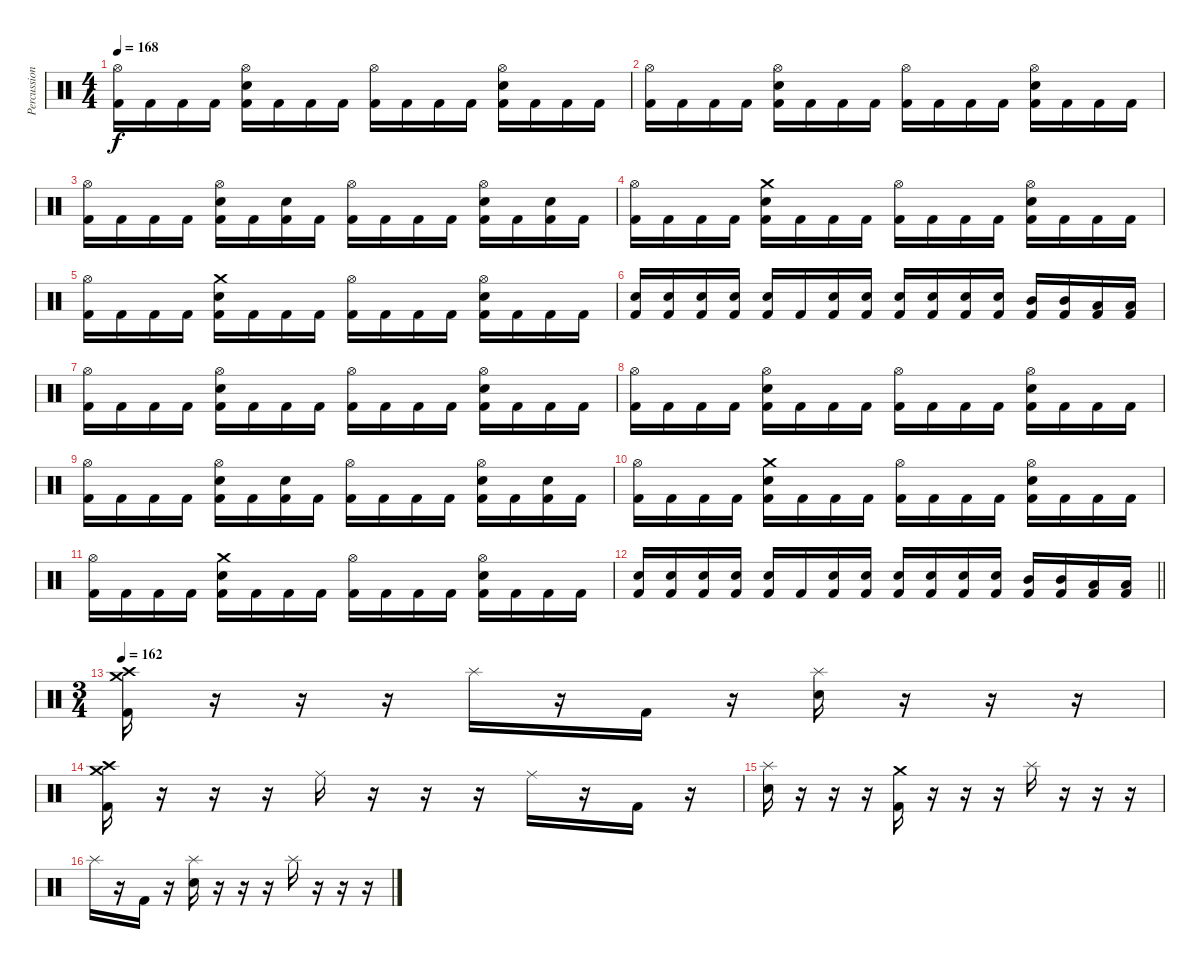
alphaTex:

\track ("Percussion" "Percussion") {instrument percussion}
\staff {score}
\articulation defaults
\ts (4 4)
\section ("" "")
\tempo 168
\clef neutral
\ks c
("Hi-Hat (open)" "Kick (hit) 2").16{dy f} "Kick (hit) 2".16 "Kick (hit) 2".16 "Kick (hit) 2".16 ("Hi-Hat (open)" "Electric Snare (hit)" "Kick (hit) 2").16 "Kick (hit) 2".16 "Kick (hit) 2".16 "Kick (hit) 2".16 ("Hi-Hat (open)" "Kick (hit) 2").16 "Kick (hit) 2".16 "Kick (hit) 2".16 "Kick (hit) 2".16 ("Hi-Hat (open)" "Electric Snare (hit)" "Kick (hit) 2").16 "Kick (hit) 2".16 "Kick (hit) 2".16 "Kick (hit) 2".16 |
("Hi-Hat (open)" "Kick (hit) 2").16 "Kick (hit) 2".16 "Kick (hit) 2".16 "Kick (hit) 2".16 ("Hi-Hat (open)" "Electric Snare (hit)" "Kick (hit) 2").16 "Kick (hit) 2".16 "Kick (hit) 2".16 "Kick (hit) 2".16 ("Hi-Hat (open)" "Kick (hit) 2").16 "Kick (hit) 2".16 "Kick (hit) 2".16 "Kick (hit) 2".16 ("Hi-Hat (open)" "Electric Snare (hit)" "Kick (hit) 2").16 "Kick (hit) 2".16 "Kick (hit) 2".16 "Kick (hit) 2".16 |
("Hi-Hat (open)" "Kick (hit) 2").16 "Kick (hit) 2".16 "Kick (hit) 2".16 "Kick (hit) 2".16 ("Hi-Hat (open)" "Electric Snare (hit)" "Kick (hit) 2").16 "Kick (hit) 2".16 ("Electric Snare (hit)" "Kick (hit) 2").16 "Kick (hit) 2".16 ("Hi-Hat (open)" "Kick (hit) 2").16 "Kick (hit) 2".16 "Kick (hit) 2".16 "Kick (hit) 2".16 ("Hi-Hat (open)" "Electric Snare (hit)" "Kick (hit) 2").16 "Kick (hit) 2".16 ("Electric Snare (hit)" "Kick (hit) 2").16 "Kick (hit) 2".16 |
("Hi-Hat (open)" "Kick (hit) 2").16 "Kick (hit) 2".16 "Kick (hit) 2".16 "Kick (hit) 2".16 ("Crash medium (hit)" "Electric Snare (hit)" "Kick (hit) 2").16 "Kick (hit) 2".16 "Kick (hit) 2".16 "Kick (hit) 2".16 ("Hi-Hat (open)" "Kick (hit) 2").16 "Kick (hit) 2".16 "Kick (hit) 2".16 "Kick (hit) 2".16 ("Hi-Hat (open)" "Electric Snare (hit)" "Kick (hit) 2").16 "Kick (hit) 2".16 "Kick (hit) 2".16 "Kick (hit) 2".16 |
("Hi-Hat (open)" "Kick (hit) 2").16 "Kick (hit) 2".16 "Kick (hit) 2".16 "Kick (hit) 2".16 ("Crash medium (hit)" "Electric Snare (hit)" "Kick (hit) 2").16 "Kick (hit) 2".16 "Kick (hit) 2".16 "Kick (hit) 2".16 ("Hi-Hat (open)" "Kick (hit) 2").16 "Kick (hit) 2".16 "Kick (hit) 2".16 "Kick (hit) 2".16 ("Hi-Hat (open)" "Electric Snare (hit)" "Kick (hit) 2").16 "Kick (hit) 2".16 "Kick (hit) 2".16 "Kick (hit) 2".16 |
("Electric Snare (hit)" "Kick (hit) 2").16 ("Electric Snare (hit)" "Kick (hit) 2").16 ("Electric Snare (hit)" "Kick (hit) 2").16 ("Electric Snare (hit)" "Kick (hit) 2").16 ("Electric Snare (hit)" "Kick (hit) 2").16 "Kick (hit) 2".16 ("Electric Snare (hit)" "Kick (hit) 2").16 ("Electric Snare (hit)" "Kick (hit) 2").16 ("Electric Snare (hit)" "Kick (hit) 2").16 ("Electric Snare (hit)" "Kick (hit) 2").16 ("Electric Snare (hit)" "Kick (hit) 2").16 ("Electric Snare (hit)" "Kick (hit) 2").16 ("Mid Tom (hit)" "Kick (hit) 2").16 ("Mid Tom (hit)" "Kick (hit) 2").16 ("Low Tom (hit)" "Kick (hit) 2").16 ("Low Tom (hit)" "Kick (hit) 2").16 |
("Hi-Hat (open)" "Kick (hit) 2").16 "Kick (hit) 2".16 "Kick (hit) 2".16 "Kick (hit) 2".16 ("Hi-Hat (open)" "Electric Snare (hit)" "Kick (hit) 2").16 "Kick (hit) 2".16 "Kick (hit) 2".16 "Kick (hit) 2".16 ("Hi-Hat (open)" "Kick (hit) 2").16 "Kick (hit) 2".16 "Kick (hit) 2".16 "Kick (hit) 2".16 ("Hi-Hat (open)" "Electric Snare (hit)" "Kick (hit) 2").16 "Kick (hit) 2".16 "Kick (hit) 2".16 "Kick (hit) 2".16 |
("Hi-Hat (open)" "Kick (hit) 2").16 "Kick (hit) 2".16 "Kick (hit) 2".16 "Kick (hit) 2".16 ("Hi-Hat (open)" "Electric Snare (hit)" "Kick (hit) 2").16 "Kick (hit) 2".16 "Kick (hit) 2".16 "Kick (hit) 2".16 ("Hi-Hat (open)" "Kick (hit) 2").16 "Kick (hit) 2".16 "Kick (hit) 2".16 "Kick (hit) 2".16 ("Hi-Hat (open)" "Electric Snare (hit)" "Kick (hit) 2").16 "Kick (hit) 2".16 "Kick (hit) 2".16 "Kick (hit) 2".16 |
("Hi-Hat (open)" "Kick (hit) 2").16 "Kick (hit) 2".16 "Kick (hit) 2".16 "Kick (hit) 2".16 ("Hi-Hat (open)" "Electric Snare (hit)" "Kick (hit) 2").16 "Kick (hit) 2".16 ("Electric Snare (hit)" "Kick (hit) 2").16 "Kick (hit) 2".16 ("Hi-Hat (open)" "Kick (hit) 2").16 "Kick (hit) 2".16 "Kick (hit) 2".16 "Kick (hit) 2".16 ("Hi-Hat (open)" "Electric Snare (hit)" "Kick (hit) 2").16 "Kick (hit) 2".16 ("Electric Snare (hit)" "Kick (hit) 2").16 "Kick (hit) 2".16 |
("Hi-Hat (open)" "Kick (hit) 2").16 "Kick (hit) 2".16 "Kick (hit) 2".16 "Kick (hit) 2".16 ("Crash medium (hit)" "Electric Snare (hit)" "Kick (hit) 2").16 "Kick (hit) 2".16 "Kick (hit) 2".16 "Kick (hit) 2".16 ("Hi-Hat (open)" "Kick (hit) 2").16 "Kick (hit) 2".16 "Kick (hit) 2".16 "Kick (hit) 2".16 ("Hi-Hat (open)" "Electric Snare (hit)" "Kick (hit) 2").16 "Kick (hit) 2".16 "Kick (hit) 2".16 "Kick (hit) 2".16 |
("Hi-Hat (open)" "Kick (hit) 2").16 "Kick (hit) 2".16 "Kick (hit) 2".16 "Kick (hit) 2".16 ("Crash medium (hit)" "Electric Snare (hit)" "Kick (hit) 2").16 "Kick (hit) 2".16 "Kick (hit) 2".16 "Kick (hit) 2".16 ("Hi-Hat (open)" "Kick (hit) 2").16 "Kick (hit) 2".16 "Kick (hit) 2".16 "Kick (hit) 2".16 ("Hi-Hat (open)" "Electric Snare (hit)" "Kick (hit) 2").16 "Kick (hit) 2".16 "Kick (hit) 2".16 "Kick (hit) 2".16 |
\barLineRight lightlight
("Electric Snare (hit)" "Kick (hit) 2").16 ("Electric Snare (hit)" "Kick (hit) 2").16 ("Electric Snare (hit)" "Kick (hit) 2").16 ("Electric Snare (hit)" "Kick (hit) 2").16 ("Electric Snare (hit)" "Kick (hit) 2").16 "Kick (hit) 2".16 ("Electric Snare (hit)" "Kick (hit) 2").16 ("Electric Snare (hit)" "Kick (hit) 2").16 ("Electric Snare (hit)" "Kick (hit) 2").16 ("Electric Snare (hit)" "Kick (hit) 2").16 ("Electric Snare (hit)" "Kick (hit) 2").16 ("Electric Snare (hit)" "Kick (hit) 2").16 ("Mid Tom (hit)" "Kick (hit) 2").16 ("Mid Tom (hit)" "Kick (hit) 2").16 ("Low Tom (hit)" "Kick (hit) 2").16 ("Low Tom (hit)" "Kick (hit) 2").16 |
\ts (3 4)
\section ("" "")
\tempo 162
("Crash medium (hit)" "Crash high (hit)" "Kick (hit) 2").16 r.16 r.16 r.16 "Splash (hit)".16 r.16 "Kick (hit) 2".16 r.16 ("Splash (hit)" "Electric Snare (hit)").16 r.16 r.16 r.16 |
("Crash medium (hit)" "Crash high (hit)" "Kick (hit) 2").16 r.16 r.16 r.16 "Ride (middle)".16 r.16 r.16 r.16 "Ride (middle)".16 r.16 "Kick (hit) 2".16 r.16 |
("Splash (hit)" "Electric Snare (hit)").16 r.16 r.16 r.16 ("Crash medium (hit)" "Kick (hit) 2").16 r.16 r.16 r.16 "Splash (hit)".16 r.16 r.16 r.16 |
"Splash (hit)".16 r.16 "Kick (hit) 2".16 r.16 ("Splash (hit)" "Electric Snare (hit)").16 r.16 r.16 r.16 "Splash (hit)".16 r.16 r.16 r.16
